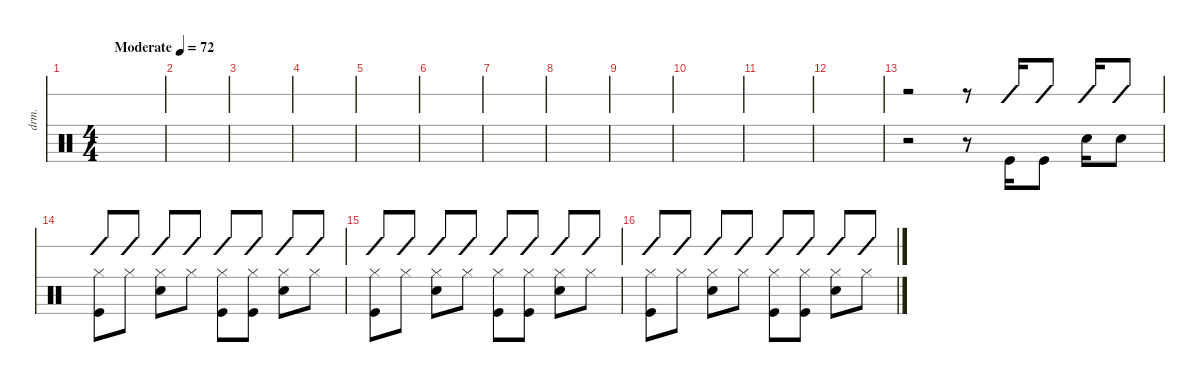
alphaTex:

\defaultSystemsLayout 4
\hideDynamics
\bracketExtendMode nobrackets
\otherSystemsTrackNameOrientation horizontal
\track ("Drumkit" "drm.") {instrument percussion}
\staff {score slash}
\articulation defaults
\ts (4 4)
\beaming (8 2 2 2 2)
\tempo (72 "Moderate")
\clef neutral
\ks c
|
|
|
|
|
|
|
|
|
|
|
|
r.2{beam Down} r.8{beam Down} "Kick (hit)".16{beam Up} "Kick (hit)".8{beam Up} "Snare (hit) 2".16{beam Down} "Snare (hit) 2".8{beam Down} |
("Hi-Hat (closed)" "Kick (hit)").8{beam Down} "Hi-Hat (closed)".8{beam Down} ("Hi-Hat (closed)" "Snare (hit) 2").8{beam Down} "Hi-Hat (closed)".8{beam Down} ("Hi-Hat (closed)" "Kick (hit)").8{beam Down} ("Hi-Hat (closed)" "Kick (hit)").8{beam Down} ("Hi-Hat (closed)" "Snare (hit) 2").8{beam Down} "Hi-Hat (closed)".8{beam Down} |
("Hi-Hat (closed)" "Kick (hit)").8{beam Down} "Hi-Hat (closed)".8{beam Down} ("Hi-Hat (closed)" "Snare (hit) 2").8{beam Down} "Hi-Hat (closed)".8{beam Down} ("Hi-Hat (closed)" "Kick (hit)").8{beam Down} ("Hi-Hat (closed)" "Kick (hit)").8{beam Down} ("Hi-Hat (closed)" "Snare (hit) 2").8{beam Down} "Hi-Hat (closed)".8{beam Down} |
("Hi-Hat (closed)" "Kick (hit)").8{beam Down} "Hi-Hat (closed)".8{beam Down} ("Hi-Hat (closed)" "Snare (hit) 2").8{beam Down} "Hi-Hat (closed)".8{beam Down} ("Hi-Hat (closed)" "Kick (hit)").8{beam Down} ("Hi-Hat (closed)" "Kick (hit)").8{beam Down} ("Hi-Hat (closed)" "Snare (hit) 2").8{beam Down} "Hi-Hat (closed)".8{beam Down}
